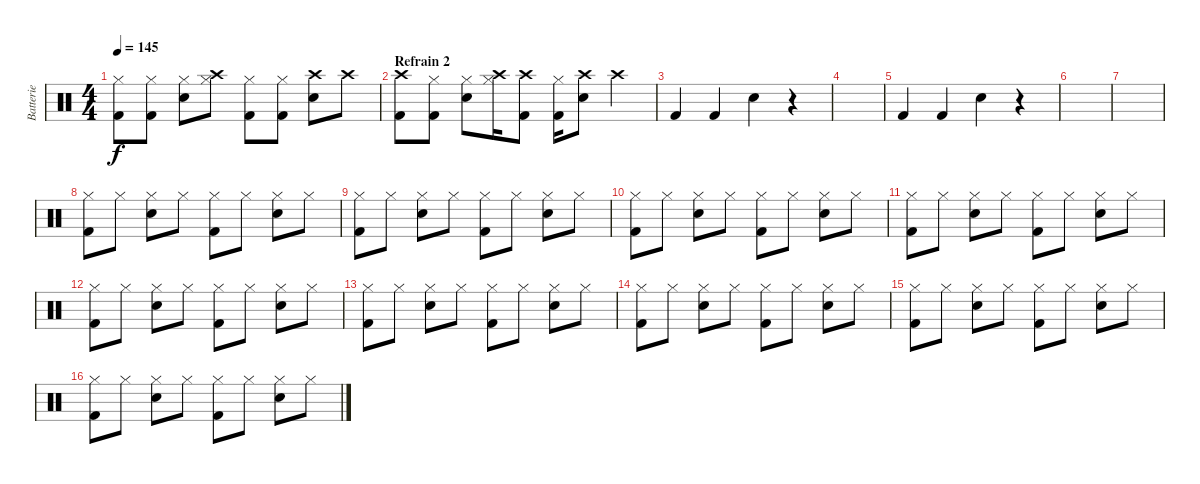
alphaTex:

\track ("Batterie" "Batterie") {instrument percussion}
\staff {score}
\articulation defaults
\ts (4 4)
\tempo 145
\clef neutral
\ks c
("Kick (hit) 2" "Hi-Hat (closed)").8{dy f} ("Kick (hit) 2" "Hi-Hat (closed)").8 ("Snare (hit) 2" "Hi-Hat (closed)").8 ("Hi-Hat (closed)" "Crash high (hit)").8 ("Kick (hit) 2" "Hi-Hat (closed)").8 ("Kick (hit) 2" "Hi-Hat (closed)").8 ("Snare (hit) 2" "Crash high (hit)").8 "Crash high (hit)".8 |
\section ("" "Refrain 2")
("Kick (hit) 2" "Crash high (hit)").8 ("Kick (hit) 2" "Hi-Hat (closed)").8 ("Snare (hit) 2" "Hi-Hat (closed)").8 ("Hi-Hat (closed)" "Crash high (hit)").16 ("Kick (hit) 2" "Crash high (hit)").8 ("Kick (hit) 2" "Hi-Hat (closed)").16 ("Snare (hit) 2" "Crash high (hit)").8 "Crash high (hit)".4 |
"Kick (hit) 2".4 "Kick (hit) 2".4 "Snare (hit) 2".4 r.4 |
|
"Kick (hit) 2".4 "Kick (hit) 2".4 "Snare (hit) 2".4 r.4 |
|
|
("Kick (hit) 2" "Hi-Hat (closed)").8 "Hi-Hat (closed)".8 ("Snare (hit) 2" "Hi-Hat (closed)").8 "Hi-Hat (closed)".8 ("Kick (hit) 2" "Hi-Hat (closed)").8 "Hi-Hat (closed)".8 ("Snare (hit) 2" "Hi-Hat (closed)").8 "Hi-Hat (closed)".8 |
("Kick (hit) 2" "Hi-Hat (closed)").8 "Hi-Hat (closed)".8 ("Snare (hit) 2" "Hi-Hat (closed)").8 "Hi-Hat (closed)".8 ("Kick (hit) 2" "Hi-Hat (closed)").8 "Hi-Hat (closed)".8 ("Snare (hit) 2" "Hi-Hat (closed)").8 "Hi-Hat (closed)".8 |
("Kick (hit) 2" "Hi-Hat (closed)").8 "Hi-Hat (closed)".8 ("Snare (hit) 2" "Hi-Hat (closed)").8 "Hi-Hat (closed)".8 ("Kick (hit) 2" "Hi-Hat (closed)").8 "Hi-Hat (closed)".8 ("Snare (hit) 2" "Hi-Hat (closed)").8 "Hi-Hat (closed)".8 |
("Kick (hit) 2" "Hi-Hat (closed)").8 "Hi-Hat (closed)".8 ("Snare (hit) 2" "Hi-Hat (closed)").8 "Hi-Hat (closed)".8 ("Kick (hit) 2" "Hi-Hat (closed)").8 "Hi-Hat (closed)".8 ("Snare (hit) 2" "Hi-Hat (closed)").8 "Hi-Hat (closed)".8 |
("Kick (hit) 2" "Hi-Hat (closed)").8 "Hi-Hat (closed)".8 ("Snare (hit) 2" "Hi-Hat (closed)").8 "Hi-Hat (closed)".8 ("Kick (hit) 2" "Hi-Hat (closed)").8 "Hi-Hat (closed)".8 ("Snare (hit) 2" "Hi-Hat (closed)").8 "Hi-Hat (closed)".8 |
("Kick (hit) 2" "Hi-Hat (closed)").8 "Hi-Hat (closed)".8 ("Snare (hit) 2" "Hi-Hat (closed)").8 "Hi-Hat (closed)".8 ("Kick (hit) 2" "Hi-Hat (closed)").8 "Hi-Hat (closed)".8 ("Snare (hit) 2" "Hi-Hat (closed)").8 "Hi-Hat (closed)".8 |
("Kick (hit) 2" "Hi-Hat (closed)").8 "Hi-Hat (closed)".8 ("Snare (hit) 2" "Hi-Hat (closed)").8 "Hi-Hat (closed)".8 ("Kick (hit) 2" "Hi-Hat (closed)").8 "Hi-Hat (closed)".8 ("Snare (hit) 2" "Hi-Hat (closed)").8 "Hi-Hat (closed)".8 |
("Kick (hit) 2" "Hi-Hat (closed)").8 "Hi-Hat (closed)".8 ("Snare (hit) 2" "Hi-Hat (closed)").8 "Hi-Hat (closed)".8 ("Kick (hit) 2" "Hi-Hat (closed)").8 "Hi-Hat (closed)".8 ("Snare (hit) 2" "Hi-Hat (closed)").8 "Hi-Hat (closed)".8 |
("Kick (hit) 2" "Hi-Hat (closed)").8 "Hi-Hat (closed)".8 ("Snare (hit) 2" "Hi-Hat (closed)").8 "Hi-Hat (closed)".8 ("Kick (hit) 2" "Hi-Hat (closed)").8 "Hi-Hat (closed)".8 ("Snare (hit) 2" "Hi-Hat (closed)").8 "Hi-Hat (closed)".8
